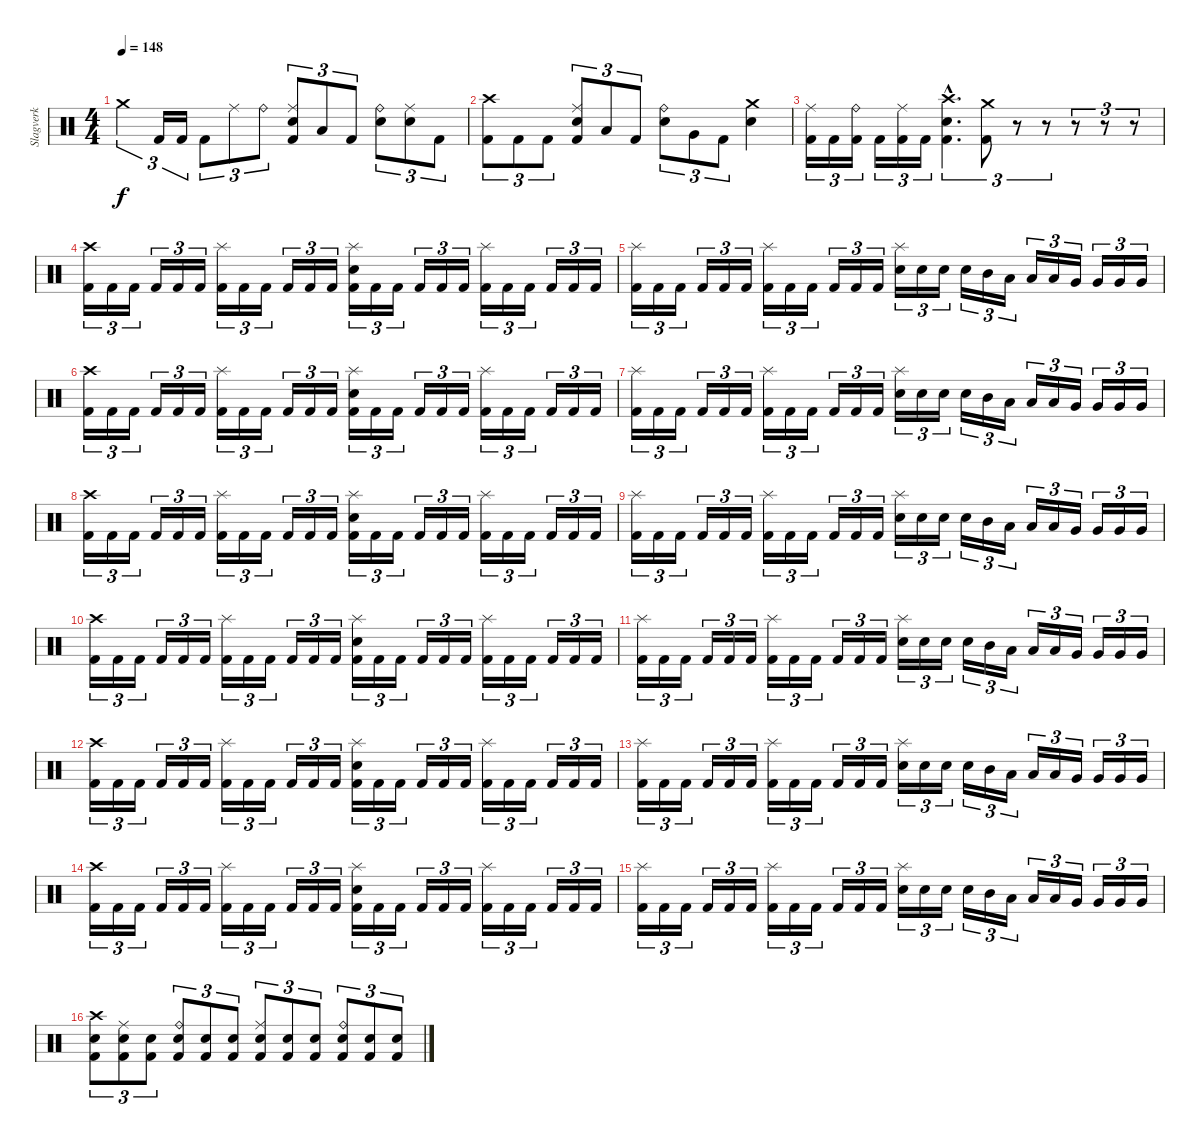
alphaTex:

\track ("Slagverk" "Slagverk") {instrument percussion}
\staff {score}
\articulation defaults
\ts (4 4)
\tempo 148
\clef neutral
\ks c "Crash medium (hit)".4{tu (3 2) dy f} "Kick (hit) 2".16{tu (3 2)} "Kick (hit) 2".16{tu (3 2)} "Kick (hit) 2".8{tu (3 2)} "Ride (middle)".8{tu (3 2)} "Ride (bell)".8{tu (3 2)}
("Ride (middle)" "Snare (hit) 2" "Kick (hit) 2").8{tu (3 2)} "Low Tom (hit)".8{tu (3 2)} "Kick (hit) 2".8{tu (3 2)} ("Ride (bell)" "Snare (hit) 2").8{tu (3 2)} ("Ride (middle)" "Snare (hit) 2").8{tu (3 2)} "Kick (hit) 2".8{tu (3 2)} |
("Crash high (hit)" "Kick (hit) 2").8{tu (3 2)} "Kick (hit) 2".8{tu (3 2)} "Kick (hit) 2".8{tu (3 2)} ("Ride (middle)" "Snare (hit) 2" "Kick (hit) 2").8{tu (3 2)} "Low Tom (hit)".8{tu (3 2)} "Kick (hit) 2".8{tu (3 2)} ("Ride (bell)" "Snare (hit) 2").8{tu (3 2)} "Very Low Tom (hit)".8{tu (3 2)} "Kick (hit) 2".8{tu (3 2)} ("Crash medium (hit)" "Snare (hit) 2").4 |
("Ride (middle)" "Kick (hit) 2").16{tu (3 2)} "Kick (hit) 2".16{tu (3 2)} ("Ride (bell)" "Kick (hit) 2").16{tu (3 2)} "Kick (hit) 2".16{tu (3 2)} ("Ride (middle)" "Kick (hit) 2").16{tu (3 2)} "Kick (hit) 2".16{tu (3 2)} ("Crash high (hit)"{hac} "Snare (hit) 2"{hac} "Kick (hit) 2"{hac}).4{d tu (3 2)} ("Crash medium (hit)" "Kick (hit) 2").8{tu (3 2)} r.8{tu (3 2)} r.8{tu (3 2)} r.8{tu (3 2)} r.8{tu (3 2)} r.8{tu (3 2)} |
("Crash high (hit)" "Kick (hit) 2").16{tu (3 2)} "Kick (hit) 2".16{tu (3 2)} "Kick (hit) 2".16{tu (3 2)} "Kick (hit) 2".16{tu (3 2)} "Kick (hit) 2".16{tu (3 2)} "Kick (hit) 2".16{tu (3 2)} ("Splash (hit)" "Kick (hit) 2").16{tu (3 2)} "Kick (hit) 2".16{tu (3 2)} "Kick (hit) 2".16{tu (3 2)} "Kick (hit) 2".16{tu (3 2)} "Kick (hit) 2".16{tu (3 2)} "Kick (hit) 2".16{tu (3 2)} ("Splash (hit)" "Snare (hit) 2" "Kick (hit) 2").16{tu (3 2)} "Kick (hit) 2".16{tu (3 2)} "Kick (hit) 2".16{tu (3 2)} "Kick (hit) 2".16{tu (3 2)} "Kick (hit) 2".16{tu (3 2)} "Kick (hit) 2".16{tu (3 2)} ("Splash (hit)" "Kick (hit) 2").16{tu (3 2)} "Kick (hit) 2".16{tu (3 2)} "Kick (hit) 2".16{tu (3 2)} "Kick (hit) 2".16{tu (3 2)} "Kick (hit) 2".16{tu (3 2)} "Kick (hit) 2".16{tu (3 2)} |
("Splash (hit)" "Kick (hit) 2").16{tu (3 2)} "Kick (hit) 2".16{tu (3 2)} "Kick (hit) 2".16{tu (3 2)} "Kick (hit) 2".16{tu (3 2)} "Kick (hit) 2".16{tu (3 2)} "Kick (hit) 2".16{tu (3 2)} ("Splash (hit)" "Kick (hit) 2").16{tu (3 2)} "Kick (hit) 2".16{tu (3 2)} "Kick (hit) 2".16{tu (3 2)} "Kick (hit) 2".16{tu (3 2)} "Kick (hit) 2".16{tu (3 2)} "Kick (hit) 2".16{tu (3 2)} ("Splash (hit)" "Snare (hit) 2").16{tu (3 2)} "Snare (hit) 2".16{tu (3 2)} "Snare (hit) 2".16{tu (3 2)} "Snare (hit) 2".16{tu (3 2)} "Mid Tom (hit)".16{tu (3 2)} "Low Tom (hit)".16{tu (3 2)} "Low Tom (hit)".16{tu (3 2)} "Low Tom (hit)".16{tu (3 2)} "Very Low Tom (hit)".16{tu (3 2)} "Very Low Tom (hit)".16{tu (3 2)} "Very Low Tom (hit)".16{tu (3 2)} "Very Low Tom (hit)".16{tu (3 2)} |
("Crash high (hit)" "Kick (hit) 2").16{tu (3 2)} "Kick (hit) 2".16{tu (3 2)} "Kick (hit) 2".16{tu (3 2)} "Kick (hit) 2".16{tu (3 2)} "Kick (hit) 2".16{tu (3 2)} "Kick (hit) 2".16{tu (3 2)} ("Splash (hit)" "Kick (hit) 2").16{tu (3 2)} "Kick (hit) 2".16{tu (3 2)} "Kick (hit) 2".16{tu (3 2)} "Kick (hit) 2".16{tu (3 2)} "Kick (hit) 2".16{tu (3 2)} "Kick (hit) 2".16{tu (3 2)} ("Splash (hit)" "Snare (hit) 2" "Kick (hit) 2").16{tu (3 2)} "Kick (hit) 2".16{tu (3 2)} "Kick (hit) 2".16{tu (3 2)} "Kick (hit) 2".16{tu (3 2)} "Kick (hit) 2".16{tu (3 2)} "Kick (hit) 2".16{tu (3 2)} ("Splash (hit)" "Kick (hit) 2").16{tu (3 2)} "Kick (hit) 2".16{tu (3 2)} "Kick (hit) 2".16{tu (3 2)} "Kick (hit) 2".16{tu (3 2)} "Kick (hit) 2".16{tu (3 2)} "Kick (hit) 2".16{tu (3 2)} |
("Splash (hit)" "Kick (hit) 2").16{tu (3 2)} "Kick (hit) 2".16{tu (3 2)} "Kick (hit) 2".16{tu (3 2)} "Kick (hit) 2".16{tu (3 2)} "Kick (hit) 2".16{tu (3 2)} "Kick (hit) 2".16{tu (3 2)} ("Splash (hit)" "Kick (hit) 2").16{tu (3 2)} "Kick (hit) 2".16{tu (3 2)} "Kick (hit) 2".16{tu (3 2)} "Kick (hit) 2".16{tu (3 2)} "Kick (hit) 2".16{tu (3 2)} "Kick (hit) 2".16{tu (3 2)} ("Splash (hit)" "Snare (hit) 2").16{tu (3 2)} "Snare (hit) 2".16{tu (3 2)} "Snare (hit) 2".16{tu (3 2)} "Snare (hit) 2".16{tu (3 2)} "Mid Tom (hit)".16{tu (3 2)} "Low Tom (hit)".16{tu (3 2)} "Low Tom (hit)".16{tu (3 2)} "Low Tom (hit)".16{tu (3 2)} "Very Low Tom (hit)".16{tu (3 2)} "Very Low Tom (hit)".16{tu (3 2)} "Very Low Tom (hit)".16{tu (3 2)} "Very Low Tom (hit)".16{tu (3 2)} |
("Crash high (hit)" "Kick (hit) 2").16{tu (3 2)} "Kick (hit) 2".16{tu (3 2)} "Kick (hit) 2".16{tu (3 2)} "Kick (hit) 2".16{tu (3 2)} "Kick (hit) 2".16{tu (3 2)} "Kick (hit) 2".16{tu (3 2)} ("Splash (hit)" "Kick (hit) 2").16{tu (3 2)} "Kick (hit) 2".16{tu (3 2)} "Kick (hit) 2".16{tu (3 2)} "Kick (hit) 2".16{tu (3 2)} "Kick (hit) 2".16{tu (3 2)} "Kick (hit) 2".16{tu (3 2)} ("Splash (hit)" "Snare (hit) 2" "Kick (hit) 2").16{tu (3 2)} "Kick (hit) 2".16{tu (3 2)} "Kick (hit) 2".16{tu (3 2)} "Kick (hit) 2".16{tu (3 2)} "Kick (hit) 2".16{tu (3 2)} "Kick (hit) 2".16{tu (3 2)} ("Splash (hit)" "Kick (hit) 2").16{tu (3 2)} "Kick (hit) 2".16{tu (3 2)} "Kick (hit) 2".16{tu (3 2)} "Kick (hit) 2".16{tu (3 2)} "Kick (hit) 2".16{tu (3 2)} "Kick (hit) 2".16{tu (3 2)} |
("Splash (hit)" "Kick (hit) 2").16{tu (3 2)} "Kick (hit) 2".16{tu (3 2)} "Kick (hit) 2".16{tu (3 2)} "Kick (hit) 2".16{tu (3 2)} "Kick (hit) 2".16{tu (3 2)} "Kick (hit) 2".16{tu (3 2)} ("Splash (hit)" "Kick (hit) 2").16{tu (3 2)} "Kick (hit) 2".16{tu (3 2)} "Kick (hit) 2".16{tu (3 2)} "Kick (hit) 2".16{tu (3 2)} "Kick (hit) 2".16{tu (3 2)} "Kick (hit) 2".16{tu (3 2)} ("Splash (hit)" "Snare (hit) 2").16{tu (3 2)} "Snare (hit) 2".16{tu (3 2)} "Snare (hit) 2".16{tu (3 2)} "Snare (hit) 2".16{tu (3 2)} "Mid Tom (hit)".16{tu (3 2)} "Low Tom (hit)".16{tu (3 2)} "Low Tom (hit)".16{tu (3 2)} "Low Tom (hit)".16{tu (3 2)} "Very Low Tom (hit)".16{tu (3 2)} "Very Low Tom (hit)".16{tu (3 2)} "Very Low Tom (hit)".16{tu (3 2)} "Very Low Tom (hit)".16{tu (3 2)} |
("Crash high (hit)" "Kick (hit) 2").16{tu (3 2)} "Kick (hit) 2".16{tu (3 2)} "Kick (hit) 2".16{tu (3 2)} "Kick (hit) 2".16{tu (3 2)} "Kick (hit) 2".16{tu (3 2)} "Kick (hit) 2".16{tu (3 2)} ("Splash (hit)" "Kick (hit) 2").16{tu (3 2)} "Kick (hit) 2".16{tu (3 2)} "Kick (hit) 2".16{tu (3 2)} "Kick (hit) 2".16{tu (3 2)} "Kick (hit) 2".16{tu (3 2)} "Kick (hit) 2".16{tu (3 2)} ("Splash (hit)" "Snare (hit) 2" "Kick (hit) 2").16{tu (3 2)} "Kick (hit) 2".16{tu (3 2)} "Kick (hit) 2".16{tu (3 2)} "Kick (hit) 2".16{tu (3 2)} "Kick (hit) 2".16{tu (3 2)} "Kick (hit) 2".16{tu (3 2)} ("Splash (hit)" "Kick (hit) 2").16{tu (3 2)} "Kick (hit) 2".16{tu (3 2)} "Kick (hit) 2".16{tu (3 2)} "Kick (hit) 2".16{tu (3 2)} "Kick (hit) 2".16{tu (3 2)} "Kick (hit) 2".16{tu (3 2)} |
("Splash (hit)" "Kick (hit) 2").16{tu (3 2)} "Kick (hit) 2".16{tu (3 2)} "Kick (hit) 2".16{tu (3 2)} "Kick (hit) 2".16{tu (3 2)} "Kick (hit) 2".16{tu (3 2)} "Kick (hit) 2".16{tu (3 2)} ("Splash (hit)" "Kick (hit) 2").16{tu (3 2)} "Kick (hit) 2".16{tu (3 2)} "Kick (hit) 2".16{tu (3 2)} "Kick (hit) 2".16{tu (3 2)} "Kick (hit) 2".16{tu (3 2)} "Kick (hit) 2".16{tu (3 2)} ("Splash (hit)" "Snare (hit) 2").16{tu (3 2)} "Snare (hit) 2".16{tu (3 2)} "Snare (hit) 2".16{tu (3 2)} "Snare (hit) 2".16{tu (3 2)} "Mid Tom (hit)".16{tu (3 2)} "Low Tom (hit)".16{tu (3 2)} "Low Tom (hit)".16{tu (3 2)} "Low Tom (hit)".16{tu (3 2)} "Very Low Tom (hit)".16{tu (3 2)} "Very Low Tom (hit)".16{tu (3 2)} "Very Low Tom (hit)".16{tu (3 2)} "Very Low Tom (hit)".16{tu (3 2)} |
("Crash high (hit)" "Kick (hit) 2").16{tu (3 2)} "Kick (hit) 2".16{tu (3 2)} "Kick (hit) 2".16{tu (3 2)} "Kick (hit) 2".16{tu (3 2)} "Kick (hit) 2".16{tu (3 2)} "Kick (hit) 2".16{tu (3 2)} ("Splash (hit)" "Kick (hit) 2").16{tu (3 2)} "Kick (hit) 2".16{tu (3 2)} "Kick (hit) 2".16{tu (3 2)} "Kick (hit) 2".16{tu (3 2)} "Kick (hit) 2".16{tu (3 2)} "Kick (hit) 2".16{tu (3 2)} ("Splash (hit)" "Snare (hit) 2" "Kick (hit) 2").16{tu (3 2)} "Kick (hit) 2".16{tu (3 2)} "Kick (hit) 2".16{tu (3 2)} "Kick (hit) 2".16{tu (3 2)} "Kick (hit) 2".16{tu (3 2)} "Kick (hit) 2".16{tu (3 2)} ("Splash (hit)" "Kick (hit) 2").16{tu (3 2)} "Kick (hit) 2".16{tu (3 2)} "Kick (hit) 2".16{tu (3 2)} "Kick (hit) 2".16{tu (3 2)} "Kick (hit) 2".16{tu (3 2)} "Kick (hit) 2".16{tu (3 2)} |
("Splash (hit)" "Kick (hit) 2").16{tu (3 2)} "Kick (hit) 2".16{tu (3 2)} "Kick (hit) 2".16{tu (3 2)} "Kick (hit) 2".16{tu (3 2)} "Kick (hit) 2".16{tu (3 2)} "Kick (hit) 2".16{tu (3 2)} ("Splash (hit)" "Kick (hit) 2").16{tu (3 2)} "Kick (hit) 2".16{tu (3 2)} "Kick (hit) 2".16{tu (3 2)} "Kick (hit) 2".16{tu (3 2)} "Kick (hit) 2".16{tu (3 2)} "Kick (hit) 2".16{tu (3 2)} ("Splash (hit)" "Snare (hit) 2").16{tu (3 2)} "Snare (hit) 2".16{tu (3 2)} "Snare (hit) 2".16{tu (3 2)} "Snare (hit) 2".16{tu (3 2)} "Mid Tom (hit)".16{tu (3 2)} "Low Tom (hit)".16{tu (3 2)} "Low Tom (hit)".16{tu (3 2)} "Low Tom (hit)".16{tu (3 2)} "Very Low Tom (hit)".16{tu (3 2)} "Very Low Tom (hit)".16{tu (3 2)} "Very Low Tom (hit)".16{tu (3 2)} "Very Low Tom (hit)".16{tu (3 2)} |
("Crash high (hit)" "Kick (hit) 2").16{tu (3 2)} "Kick (hit) 2".16{tu (3 2)} "Kick (hit) 2".16{tu (3 2)} "Kick (hit) 2".16{tu (3 2)} "Kick (hit) 2".16{tu (3 2)} "Kick (hit) 2".16{tu (3 2)} ("Splash (hit)" "Kick (hit) 2").16{tu (3 2)} "Kick (hit) 2".16{tu (3 2)} "Kick (hit) 2".16{tu (3 2)} "Kick (hit) 2".16{tu (3 2)} "Kick (hit) 2".16{tu (3 2)} "Kick (hit) 2".16{tu (3 2)} ("Splash (hit)" "Snare (hit) 2" "Kick (hit) 2").16{tu (3 2)} "Kick (hit) 2".16{tu (3 2)} "Kick (hit) 2".16{tu (3 2)} "Kick (hit) 2".16{tu (3 2)} "Kick (hit) 2".16{tu (3 2)} "Kick (hit) 2".16{tu (3 2)} ("Splash (hit)" "Kick (hit) 2").16{tu (3 2)} "Kick (hit) 2".16{tu (3 2)} "Kick (hit) 2".16{tu (3 2)} "Kick (hit) 2".16{tu (3 2)} "Kick (hit) 2".16{tu (3 2)} "Kick (hit) 2".16{tu (3 2)} |
("Splash (hit)" "Kick (hit) 2").16{tu (3 2)} "Kick (hit) 2".16{tu (3 2)} "Kick (hit) 2".16{tu (3 2)} "Kick (hit) 2".16{tu (3 2)} "Kick (hit) 2".16{tu (3 2)} "Kick (hit) 2".16{tu (3 2)} ("Splash (hit)" "Kick (hit) 2").16{tu (3 2)} "Kick (hit) 2".16{tu (3 2)} "Kick (hit) 2".16{tu (3 2)} "Kick (hit) 2".16{tu (3 2)} "Kick (hit) 2".16{tu (3 2)} "Kick (hit) 2".16{tu (3 2)} ("Splash (hit)" "Snare (hit) 2").16{tu (3 2)} "Snare (hit) 2".16{tu (3 2)} "Snare (hit) 2".16{tu (3 2)} "Snare (hit) 2".16{tu (3 2)} "Mid Tom (hit)".16{tu (3 2)} "Low Tom (hit)".16{tu (3 2)} "Low Tom (hit)".16{tu (3 2)} "Low Tom (hit)".16{tu (3 2)} "Very Low Tom (hit)".16{tu (3 2)} "Very Low Tom (hit)".16{tu (3 2)} "Very Low Tom (hit)".16{tu (3 2)} "Very Low Tom (hit)".16{tu (3 2)} |
("Crash high (hit)" "Snare (hit) 2" "Kick (hit) 2").8{tu (3 2)} ("Ride (middle)" "Snare (hit) 2" "Kick (hit) 2").8{tu (3 2)} ("Snare (hit) 2" "Kick (hit) 2").8{tu (3 2)} ("Ride (bell)" "Snare (hit) 2" "Kick (hit) 2").8{tu (3 2)} ("Snare (hit) 2" "Kick (hit) 2").8{tu (3 2)} ("Snare (hit) 2" "Kick (hit) 2").8{tu (3 2)} ("Ride (middle)" "Snare (hit) 2" "Kick (hit) 2").8{tu (3 2)} ("Snare (hit) 2" "Kick (hit) 2").8{tu (3 2)} ("Snare (hit) 2" "Kick (hit) 2").8{tu (3 2)} ("Ride (bell)" "Snare (hit) 2" "Kick (hit) 2").8{tu (3 2)} ("Snare (hit) 2" "Kick (hit) 2").8{tu (3 2)} ("Snare (hit) 2" "Kick (hit) 2").8{tu (3 2)}
